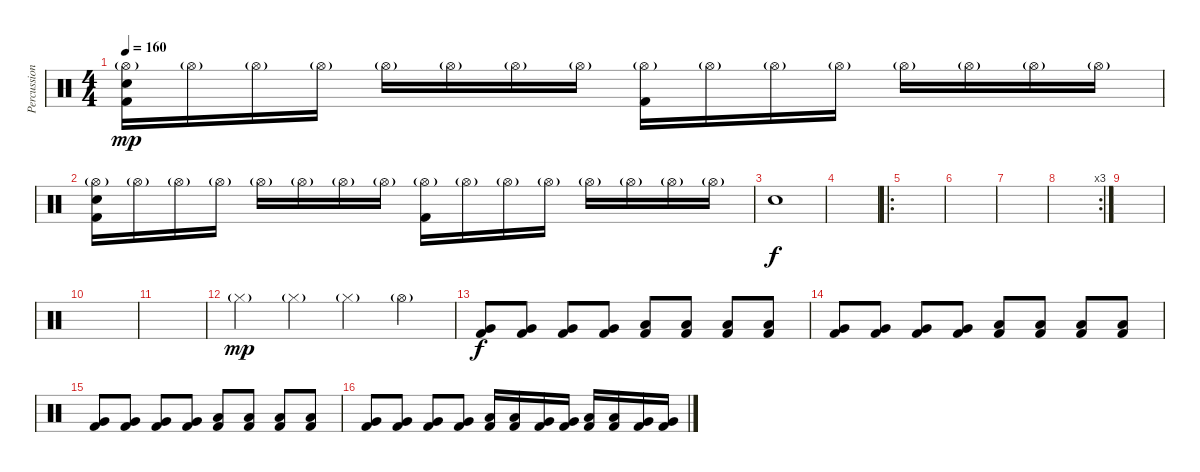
\track ("Percussion" "Percussion") {instrument percussion}
\staff {score}
\articulation defaults
\ts (4 4)
\tempo 160
\clef neutral
\ks c
("Hi-Hat (open)"{g} "Kick (hit) 2" "Electric Snare (hit)").16{dy mp} "Hi-Hat (open)"{g}.16 "Hi-Hat (open)"{g}.16 "Hi-Hat (open)"{g}.16 "Hi-Hat (open)"{g}.16 "Hi-Hat (open)"{g}.16 "Hi-Hat (open)"{g}.16 "Hi-Hat (open)"{g}.16 ("Hi-Hat (open)"{g} "Kick (hit) 2").16 "Hi-Hat (open)"{g}.16 "Hi-Hat (open)"{g}.16 "Hi-Hat (open)"{g}.16 "Hi-Hat (open)"{g}.16 "Hi-Hat (open)"{g}.16 "Hi-Hat (open)"{g}.16 "Hi-Hat (open)"{g}.16 |
("Hi-Hat (open)"{g} "Kick (hit) 2" "Electric Snare (hit)").16 "Hi-Hat (open)"{g}.16 "Hi-Hat (open)"{g}.16 "Hi-Hat (open)"{g}.16 "Hi-Hat (open)"{g}.16 "Hi-Hat (open)"{g}.16 "Hi-Hat (open)"{g}.16 "Hi-Hat (open)"{g}.16 ("Hi-Hat (open)"{g} "Kick (hit) 2").16 "Hi-Hat (open)"{g}.16 "Hi-Hat (open)"{g}.16 "Hi-Hat (open)"{g}.16 "Hi-Hat (open)"{g}.16 "Hi-Hat (open)"{g}.16 "Hi-Hat (open)"{g}.16 "Hi-Hat (open)"{g}.16 |
"Electric Snare (hit)".1{dy f} |
|
\ro
|
|
|
\rc 3
|
|
|
|
"Hi-Hat (closed)"{g}.4{dy mp} "Hi-Hat (closed)"{g}.4 "Hi-Hat (closed)"{g}.4 "Hi-Hat (open)"{g}.4 |
("Kick (hit) 2" "Very Low Tom (hit)").8{dy f} ("Kick (hit) 2" "Very Low Tom (hit)").8 ("Kick (hit) 2" "Very Low Tom (hit)").8 ("Kick (hit) 2" "Very Low Tom (hit)").8 ("Kick (hit) 2" "Low Floor Tom (hit)").8 ("Kick (hit) 2" "Low Floor Tom (hit)").8 ("Kick (hit) 2" "Low Floor Tom (hit)").8 ("Kick (hit) 2" "Low Floor Tom (hit)").8 |
("Kick (hit) 2" "Very Low Tom (hit)").8 ("Kick (hit) 2" "Very Low Tom (hit)").8 ("Kick (hit) 2" "Very Low Tom (hit)").8 ("Kick (hit) 2" "Very Low Tom (hit)").8 ("Kick (hit) 2" "Low Floor Tom (hit)").8 ("Kick (hit) 2" "Low Floor Tom (hit)").8 ("Kick (hit) 2" "Low Floor Tom (hit)").8 ("Kick (hit) 2" "Low Floor Tom (hit)").8 |
("Kick (hit) 2" "Very Low Tom (hit)").8 ("Kick (hit) 2" "Very Low Tom (hit)").8 ("Kick (hit) 2" "Very Low Tom (hit)").8 ("Kick (hit) 2" "Very Low Tom (hit)").8 ("Kick (hit) 2" "Low Floor Tom (hit)").8 ("Kick (hit) 2" "Low Floor Tom (hit)").8 ("Kick (hit) 2" "Low Floor Tom (hit)").8 ("Kick (hit) 2" "Low Floor Tom (hit)").8 |
("Kick (hit) 2" "Very Low Tom (hit)").8 ("Kick (hit) 2" "Very Low Tom (hit)").8 ("Kick (hit) 2" "Very Low Tom (hit)").8 ("Kick (hit) 2" "Very Low Tom (hit)").8 ("Kick (hit) 2" "Low Floor Tom (hit)").16 ("Kick (hit) 2" "Low Floor Tom (hit)").16 ("Kick (hit) 2" "Very Low Tom (hit)").16 ("Kick (hit) 2" "Very Low Tom (hit)").16 ("Kick (hit) 2" "Low Floor Tom (hit)").16 ("Kick (hit) 2" "Low Floor Tom (hit)").16 ("Kick (hit) 2" "Very Low Tom (hit)").16 ("Kick (hit) 2" "Very Low Tom (hit)").16
